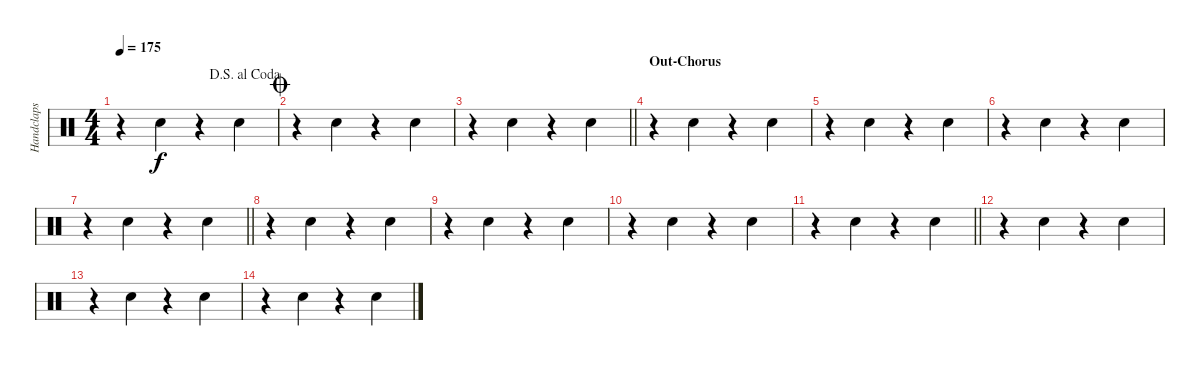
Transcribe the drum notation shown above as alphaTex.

\track ("Handclaps" "Handclaps") {instrument percussion}
\staff {score}
\articulation defaults
\ts (4 4)
\jump dalsegnoalcoda
\tempo 175
\clef neutral
\ks c
r.4{dy f} "Hand Clap (hit)".4 r.4 "Hand Clap (hit)".4 |
\jump coda
r.4 "Hand Clap (hit)".4 r.4 "Hand Clap (hit)".4 |
\barLineRight lightlight
r.4 "Hand Clap (hit)".4 r.4 "Hand Clap (hit)".4 |
\section ("" "Out-Chorus")
r.4 "Hand Clap (hit)".4 r.4 "Hand Clap (hit)".4 |
r.4 "Hand Clap (hit)".4 r.4 "Hand Clap (hit)".4 |
r.4 "Hand Clap (hit)".4 r.4 "Hand Clap (hit)".4 |
\barLineRight lightlight
r.4 "Hand Clap (hit)".4 r.4 "Hand Clap (hit)".4 |
r.4 "Hand Clap (hit)".4 r.4 "Hand Clap (hit)".4 |
r.4 "Hand Clap (hit)".4 r.4 "Hand Clap (hit)".4 |
r.4 "Hand Clap (hit)".4 r.4 "Hand Clap (hit)".4 |
\barLineRight lightlight
r.4 "Hand Clap (hit)".4 r.4 "Hand Clap (hit)".4 |
r.4 "Hand Clap (hit)".4 r.4 "Hand Clap (hit)".4 |
r.4 "Hand Clap (hit)".4 r.4 "Hand Clap (hit)".4 |
r.4 "Hand Clap (hit)".4 r.4 "Hand Clap (hit)".4
